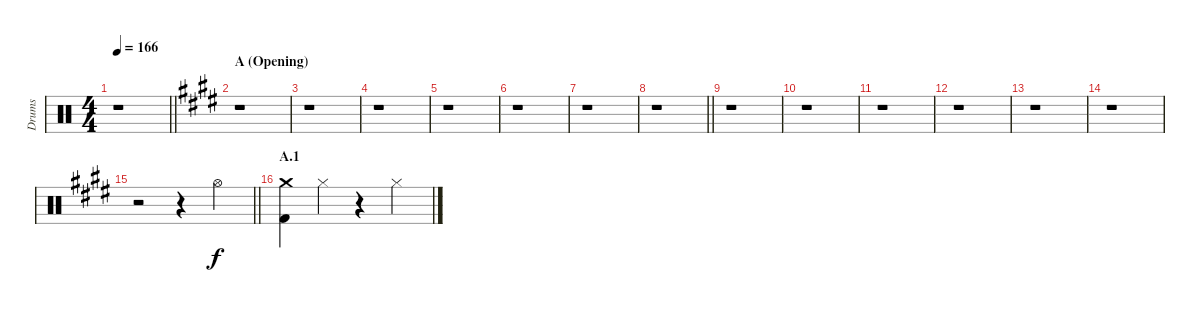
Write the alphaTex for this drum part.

\track ("Drums" "Drums") {instrument percussion}
\staff {score}
\articulation defaults
\ts (4 4)
\section ("" "")
\tempo 166
\clef neutral
\barLineRight lightlight
\ks c
r.1{dy f} |
\section ("" "A (Opening)")
\ks e
r.1 |
r.1 |
r.1 |
r.1 |
r.1 |
r.1 |
\barLineRight lightlight
r.1 |
r.1 |
r.1 |
r.1 |
r.1 |
r.1 |
r.1 |
\barLineRight lightlight
r.2 r.4 "Hi-Hat (open)".4 |
\section ("" "A.1")
("Crash medium (hit)" "Kick (hit) 2").4 "Hi-Hat (closed)".4 r.4 "Hi-Hat (closed)".4
